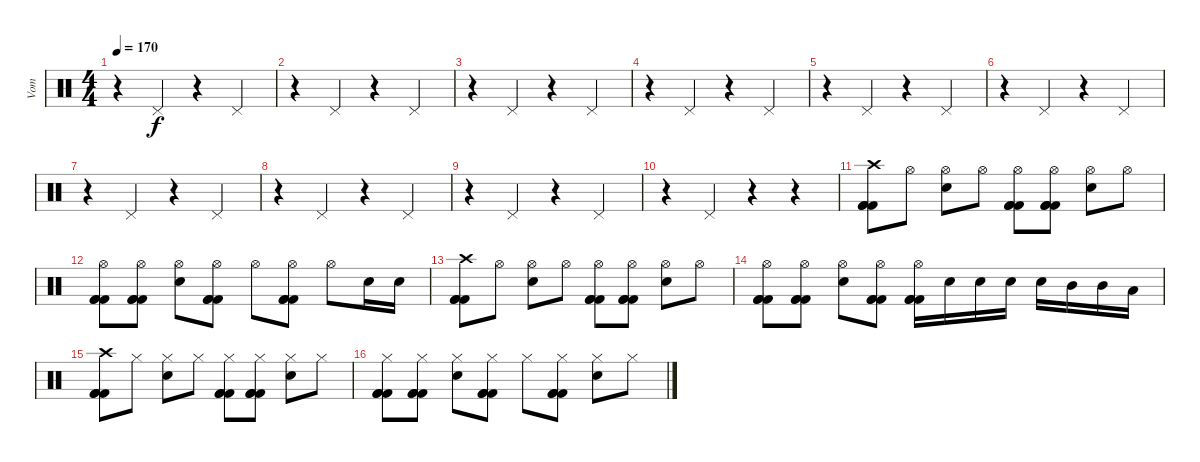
\track ("Vom" "Vom") {instrument percussion}
\staff {score}
\articulation defaults
\ts (4 4)
\tempo 170
\clef neutral
\ks c
r.4{dy f} "Pedal Hi-Hat (hit)".4 r.4 "Pedal Hi-Hat (hit)".4 |
r.4 "Pedal Hi-Hat (hit)".4 r.4 "Pedal Hi-Hat (hit)".4 |
r.4 "Pedal Hi-Hat (hit)".4 r.4 "Pedal Hi-Hat (hit)".4 |
r.4 "Pedal Hi-Hat (hit)".4 r.4 "Pedal Hi-Hat (hit)".4 |
r.4 "Pedal Hi-Hat (hit)".4 r.4 "Pedal Hi-Hat (hit)".4 |
r.4 "Pedal Hi-Hat (hit)".4 r.4 "Pedal Hi-Hat (hit)".4 |
r.4 "Pedal Hi-Hat (hit)".4 r.4 "Pedal Hi-Hat (hit)".4 |
r.4 "Pedal Hi-Hat (hit)".4 r.4 "Pedal Hi-Hat (hit)".4 |
r.4 "Pedal Hi-Hat (hit)".4 r.4 "Pedal Hi-Hat (hit)".4 |
r.4 "Pedal Hi-Hat (hit)".4 r.4 r.4 |
("Crash high (hit)" "Kick (hit) 2" "Kick (hit) 2" "Kick (hit) 2").8 "Hi-Hat (open)".8 ("Hi-Hat (open)" "Snare (hit) 2").8 "Hi-Hat (open)".8 ("Hi-Hat (open)" "Kick (hit) 2" "Kick (hit) 2" "Kick (hit) 2").8 ("Hi-Hat (open)" "Kick (hit) 2" "Kick (hit) 2" "Kick (hit) 2").8 ("Hi-Hat (open)" "Snare (hit) 2").8 "Hi-Hat (open)".8 |
("Hi-Hat (open)" "Kick (hit) 2" "Kick (hit) 2" "Kick (hit) 2").8 ("Hi-Hat (open)" "Kick (hit) 2" "Kick (hit) 2" "Kick (hit) 2").8 ("Hi-Hat (open)" "Snare (hit) 2").8 ("Hi-Hat (open)" "Kick (hit) 2" "Kick (hit) 2" "Kick (hit) 2").8 "Hi-Hat (open)".8 ("Hi-Hat (open)" "Kick (hit) 2" "Kick (hit) 2" "Kick (hit) 2").8 "Hi-Hat (open)".8 "Snare (hit) 2".16 "Snare (hit) 2".16 |
("Crash high (hit)" "Kick (hit) 2" "Kick (hit) 2" "Kick (hit) 2").8 "Hi-Hat (open)".8 ("Hi-Hat (open)" "Snare (hit) 2").8 "Hi-Hat (open)".8 ("Hi-Hat (open)" "Kick (hit) 2" "Kick (hit) 2" "Kick (hit) 2").8 ("Hi-Hat (open)" "Kick (hit) 2" "Kick (hit) 2" "Kick (hit) 2").8 ("Hi-Hat (open)" "Snare (hit) 2").8 "Hi-Hat (open)".8 |
("Hi-Hat (open)" "Kick (hit) 2" "Kick (hit) 2" "Kick (hit) 2").8 ("Hi-Hat (open)" "Kick (hit) 2" "Kick (hit) 2" "Kick (hit) 2").8 ("Hi-Hat (open)" "Snare (hit) 2").8 ("Hi-Hat (open)" "Kick (hit) 2" "Kick (hit) 2" "Kick (hit) 2").8 ("Hi-Hat (open)" "Kick (hit) 2" "Kick (hit) 2" "Kick (hit) 2").16 "Snare (hit) 2".16 "Snare (hit) 2".16 "Snare (hit) 2".16 "Snare (hit) 2".16 "Mid Tom (hit)".16 "Mid Tom (hit)".16 "Low Tom (hit)".16 |
("Crash high (hit)" "Kick (hit) 2" "Kick (hit) 2" "Kick (hit) 2").8 "Hi-Hat (closed)".8 ("Hi-Hat (closed)" "Snare (hit) 2").8 "Hi-Hat (closed)".8 ("Hi-Hat (closed)" "Kick (hit) 2" "Kick (hit) 2" "Kick (hit) 2").8 ("Hi-Hat (closed)" "Kick (hit) 2" "Kick (hit) 2" "Kick (hit) 2").8 ("Hi-Hat (closed)" "Snare (hit) 2").8 "Hi-Hat (closed)".8 |
("Hi-Hat (closed)" "Kick (hit) 2" "Kick (hit) 2" "Kick (hit) 2").8 ("Hi-Hat (closed)" "Kick (hit) 2" "Kick (hit) 2" "Kick (hit) 2").8 ("Hi-Hat (closed)" "Snare (hit) 2").8 ("Hi-Hat (closed)" "Kick (hit) 2" "Kick (hit) 2" "Kick (hit) 2").8 "Hi-Hat (closed)".8 ("Hi-Hat (closed)" "Kick (hit) 2" "Kick (hit) 2" "Kick (hit) 2").8 ("Hi-Hat (closed)" "Snare (hit) 2").8 "Hi-Hat (closed)".8
